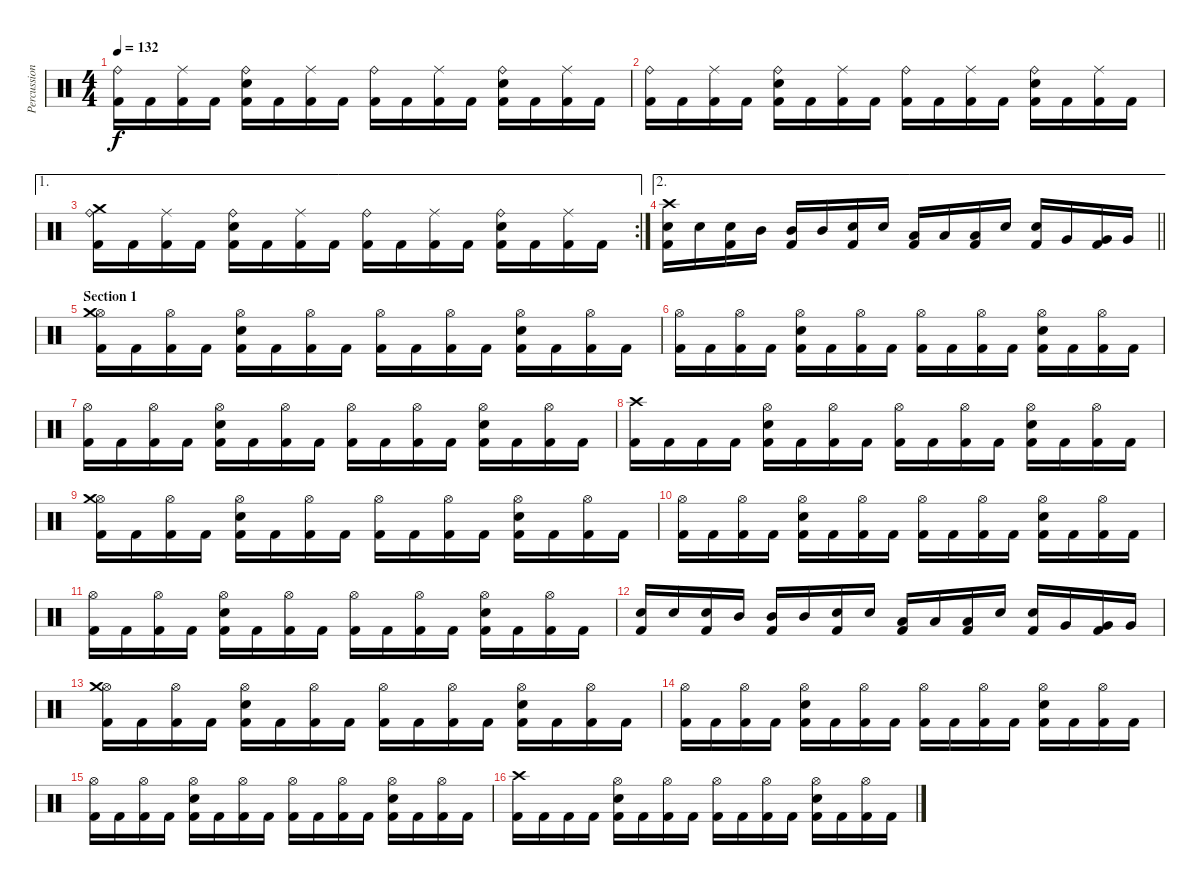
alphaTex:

\track ("Percussion" "Percussion") {instrument percussion}
\staff {score}
\articulation defaults
\ts (4 4)
\tempo 132
\clef neutral
\ks c
("Kick (hit) 2" "Ride (bell)").16{dy f} "Kick (hit) 2".16 ("Kick (hit) 2" "Ride (middle)").16 "Kick (hit) 2".16 ("Kick (hit) 2" "Electric Snare (hit)" "Ride (bell)").16 "Kick (hit) 2".16 ("Kick (hit) 2" "Ride (middle)").16 "Kick (hit) 2".16 ("Kick (hit) 2" "Ride (bell)").16 "Kick (hit) 2".16 ("Kick (hit) 2" "Ride (middle)").16 "Kick (hit) 2".16 ("Kick (hit) 2" "Electric Snare (hit)" "Ride (bell)").16 "Kick (hit) 2".16 ("Kick (hit) 2" "Ride (middle)").16 "Kick (hit) 2".16 |
("Kick (hit) 2" "Ride (bell)").16 "Kick (hit) 2".16 ("Kick (hit) 2" "Ride (middle)").16 "Kick (hit) 2".16 ("Kick (hit) 2" "Electric Snare (hit)" "Ride (bell)").16 "Kick (hit) 2".16 ("Kick (hit) 2" "Ride (middle)").16 "Kick (hit) 2".16 ("Kick (hit) 2" "Ride (bell)").16 "Kick (hit) 2".16 ("Kick (hit) 2" "Ride (middle)").16 "Kick (hit) 2".16 ("Kick (hit) 2" "Electric Snare (hit)" "Ride (bell)").16 "Kick (hit) 2".16 ("Kick (hit) 2" "Ride (middle)").16 "Kick (hit) 2".16 |
\ae 1
\rc 2
("Kick (hit) 2" "Ride (bell)" "Crash medium (hit)").16 "Kick (hit) 2".16 ("Kick (hit) 2" "Ride (middle)").16 "Kick (hit) 2".16 ("Kick (hit) 2" "Electric Snare (hit)" "Ride (bell)").16 "Kick (hit) 2".16 ("Kick (hit) 2" "Ride (middle)").16 "Kick (hit) 2".16 ("Kick (hit) 2" "Ride (bell)").16 "Kick (hit) 2".16 ("Kick (hit) 2" "Ride (middle)").16 "Kick (hit) 2".16 ("Kick (hit) 2" "Electric Snare (hit)" "Ride (bell)").16 "Kick (hit) 2".16 ("Kick (hit) 2" "Ride (middle)").16 "Kick (hit) 2".16 |
\ae 2
\barLineRight lightlight
("Crash high (hit)" "Electric Snare (hit)" "Kick (hit) 2").16 "Electric Snare (hit)".16 ("Electric Snare (hit)" "Kick (hit) 2").16 "Mid Tom (hit)".16 ("Mid Tom (hit)" "Kick (hit) 2").16 "Mid Tom (hit)".16 ("Electric Snare (hit)" "Kick (hit) 2").16 "Electric Snare (hit)".16 ("Low Tom (hit)" "Kick (hit) 2").16 "Low Tom (hit)".16 ("Low Tom (hit)" "Kick (hit) 2").16 "Electric Snare (hit)".16 ("Electric Snare (hit)" "Kick (hit) 2").16 "Very Low Tom (hit)".16 ("Very Low Tom (hit)" "Kick (hit) 2").16 "Very Low Tom (hit)".16 |
\section ("" "Section 1")
("Kick (hit) 2" "Hi-Hat (open)" "Crash medium (hit)").16 "Kick (hit) 2".16 ("Kick (hit) 2" "Hi-Hat (open)").16 "Kick (hit) 2".16 ("Kick (hit) 2" "Electric Snare (hit)" "Hi-Hat (open)").16 "Kick (hit) 2".16 ("Kick (hit) 2" "Hi-Hat (open)").16 "Kick (hit) 2".16 ("Kick (hit) 2" "Hi-Hat (open)").16 "Kick (hit) 2".16 ("Kick (hit) 2" "Hi-Hat (open)").16 "Kick (hit) 2".16 ("Kick (hit) 2" "Electric Snare (hit)" "Hi-Hat (open)").16 "Kick (hit) 2".16 ("Kick (hit) 2" "Hi-Hat (open)").16 "Kick (hit) 2".16 |
("Kick (hit) 2" "Hi-Hat (open)").16 "Kick (hit) 2".16 ("Kick (hit) 2" "Hi-Hat (open)").16 "Kick (hit) 2".16 ("Kick (hit) 2" "Electric Snare (hit)" "Hi-Hat (open)").16 "Kick (hit) 2".16 ("Kick (hit) 2" "Hi-Hat (open)").16 "Kick (hit) 2".16 ("Kick (hit) 2" "Hi-Hat (open)").16 "Kick (hit) 2".16 ("Kick (hit) 2" "Hi-Hat (open)").16 "Kick (hit) 2".16 ("Kick (hit) 2" "Electric Snare (hit)" "Hi-Hat (open)").16 "Kick (hit) 2".16 ("Kick (hit) 2" "Hi-Hat (open)").16 "Kick (hit) 2".16 |
("Kick (hit) 2" "Hi-Hat (open)").16 "Kick (hit) 2".16 ("Kick (hit) 2" "Hi-Hat (open)").16 "Kick (hit) 2".16 ("Kick (hit) 2" "Electric Snare (hit)" "Hi-Hat (open)").16 "Kick (hit) 2".16 ("Kick (hit) 2" "Hi-Hat (open)").16 "Kick (hit) 2".16 ("Kick (hit) 2" "Hi-Hat (open)").16 "Kick (hit) 2".16 ("Kick (hit) 2" "Hi-Hat (open)").16 "Kick (hit) 2".16 ("Kick (hit) 2" "Electric Snare (hit)" "Hi-Hat (open)").16 "Kick (hit) 2".16 ("Kick (hit) 2" "Hi-Hat (open)").16 "Kick (hit) 2".16 |
("Kick (hit) 2" "Crash high (hit)").16 "Kick (hit) 2".16 "Kick (hit) 2".16 "Kick (hit) 2".16 ("Kick (hit) 2" "Electric Snare (hit)" "Hi-Hat (open)").16 "Kick (hit) 2".16 ("Kick (hit) 2" "Hi-Hat (open)").16 "Kick (hit) 2".16 ("Kick (hit) 2" "Hi-Hat (open)").16 "Kick (hit) 2".16 ("Kick (hit) 2" "Hi-Hat (open)").16 "Kick (hit) 2".16 ("Kick (hit) 2" "Electric Snare (hit)" "Hi-Hat (open)").16 "Kick (hit) 2".16 ("Kick (hit) 2" "Hi-Hat (open)").16 "Kick (hit) 2".16 |
("Kick (hit) 2" "Hi-Hat (open)" "Crash medium (hit)").16 "Kick (hit) 2".16 ("Kick (hit) 2" "Hi-Hat (open)").16 "Kick (hit) 2".16 ("Kick (hit) 2" "Electric Snare (hit)" "Hi-Hat (open)").16 "Kick (hit) 2".16 ("Kick (hit) 2" "Hi-Hat (open)").16 "Kick (hit) 2".16 ("Kick (hit) 2" "Hi-Hat (open)").16 "Kick (hit) 2".16 ("Kick (hit) 2" "Hi-Hat (open)").16 "Kick (hit) 2".16 ("Kick (hit) 2" "Electric Snare (hit)" "Hi-Hat (open)").16 "Kick (hit) 2".16 ("Kick (hit) 2" "Hi-Hat (open)").16 "Kick (hit) 2".16 |
("Kick (hit) 2" "Hi-Hat (open)").16 "Kick (hit) 2".16 ("Kick (hit) 2" "Hi-Hat (open)").16 "Kick (hit) 2".16 ("Kick (hit) 2" "Electric Snare (hit)" "Hi-Hat (open)").16 "Kick (hit) 2".16 ("Kick (hit) 2" "Hi-Hat (open)").16 "Kick (hit) 2".16 ("Kick (hit) 2" "Hi-Hat (open)").16 "Kick (hit) 2".16 ("Kick (hit) 2" "Hi-Hat (open)").16 "Kick (hit) 2".16 ("Kick (hit) 2" "Electric Snare (hit)" "Hi-Hat (open)").16 "Kick (hit) 2".16 ("Kick (hit) 2" "Hi-Hat (open)").16 "Kick (hit) 2".16 |
("Kick (hit) 2" "Hi-Hat (open)").16 "Kick (hit) 2".16 ("Kick (hit) 2" "Hi-Hat (open)").16 "Kick (hit) 2".16 ("Kick (hit) 2" "Electric Snare (hit)" "Hi-Hat (open)").16 "Kick (hit) 2".16 ("Kick (hit) 2" "Hi-Hat (open)").16 "Kick (hit) 2".16 ("Kick (hit) 2" "Hi-Hat (open)").16 "Kick (hit) 2".16 ("Kick (hit) 2" "Hi-Hat (open)").16 "Kick (hit) 2".16 ("Kick (hit) 2" "Electric Snare (hit)" "Hi-Hat (open)").16 "Kick (hit) 2".16 ("Kick (hit) 2" "Hi-Hat (open)").16 "Kick (hit) 2".16 |
("Electric Snare (hit)" "Kick (hit) 2").16 "Electric Snare (hit)".16 ("Electric Snare (hit)" "Kick (hit) 2").16 "Mid Tom (hit)".16 ("Mid Tom (hit)" "Kick (hit) 2").16 "Mid Tom (hit)".16 ("Electric Snare (hit)" "Kick (hit) 2").16 "Electric Snare (hit)".16 ("Low Tom (hit)" "Kick (hit) 2").16 "Low Tom (hit)".16 ("Low Tom (hit)" "Kick (hit) 2").16 "Electric Snare (hit)".16 ("Electric Snare (hit)" "Kick (hit) 2").16 "Very Low Tom (hit)".16 ("Very Low Tom (hit)" "Kick (hit) 2").16 "Very Low Tom (hit)".16 |
("Kick (hit) 2" "Hi-Hat (open)" "Crash medium (hit)").16 "Kick (hit) 2".16 ("Kick (hit) 2" "Hi-Hat (open)").16 "Kick (hit) 2".16 ("Kick (hit) 2" "Electric Snare (hit)" "Hi-Hat (open)").16 "Kick (hit) 2".16 ("Kick (hit) 2" "Hi-Hat (open)").16 "Kick (hit) 2".16 ("Kick (hit) 2" "Hi-Hat (open)").16 "Kick (hit) 2".16 ("Kick (hit) 2" "Hi-Hat (open)").16 "Kick (hit) 2".16 ("Kick (hit) 2" "Electric Snare (hit)" "Hi-Hat (open)").16 "Kick (hit) 2".16 ("Kick (hit) 2" "Hi-Hat (open)").16 "Kick (hit) 2".16 |
("Kick (hit) 2" "Hi-Hat (open)").16 "Kick (hit) 2".16 ("Kick (hit) 2" "Hi-Hat (open)").16 "Kick (hit) 2".16 ("Kick (hit) 2" "Electric Snare (hit)" "Hi-Hat (open)").16 "Kick (hit) 2".16 ("Kick (hit) 2" "Hi-Hat (open)").16 "Kick (hit) 2".16 ("Kick (hit) 2" "Hi-Hat (open)").16 "Kick (hit) 2".16 ("Kick (hit) 2" "Hi-Hat (open)").16 "Kick (hit) 2".16 ("Kick (hit) 2" "Electric Snare (hit)" "Hi-Hat (open)").16 "Kick (hit) 2".16 ("Kick (hit) 2" "Hi-Hat (open)").16 "Kick (hit) 2".16 |
("Kick (hit) 2" "Hi-Hat (open)").16 "Kick (hit) 2".16 ("Kick (hit) 2" "Hi-Hat (open)").16 "Kick (hit) 2".16 ("Kick (hit) 2" "Electric Snare (hit)" "Hi-Hat (open)").16 "Kick (hit) 2".16 ("Kick (hit) 2" "Hi-Hat (open)").16 "Kick (hit) 2".16 ("Kick (hit) 2" "Hi-Hat (open)").16 "Kick (hit) 2".16 ("Kick (hit) 2" "Hi-Hat (open)").16 "Kick (hit) 2".16 ("Kick (hit) 2" "Electric Snare (hit)" "Hi-Hat (open)").16 "Kick (hit) 2".16 ("Kick (hit) 2" "Hi-Hat (open)").16 "Kick (hit) 2".16 |
("Kick (hit) 2" "Crash high (hit)").16 "Kick (hit) 2".16 "Kick (hit) 2".16 "Kick (hit) 2".16 ("Kick (hit) 2" "Electric Snare (hit)" "Hi-Hat (open)").16 "Kick (hit) 2".16 ("Kick (hit) 2" "Hi-Hat (open)").16 "Kick (hit) 2".16 ("Kick (hit) 2" "Hi-Hat (open)").16 "Kick (hit) 2".16 ("Kick (hit) 2" "Hi-Hat (open)").16 "Kick (hit) 2".16 ("Kick (hit) 2" "Electric Snare (hit)" "Hi-Hat (open)").16 "Kick (hit) 2".16 ("Kick (hit) 2" "Hi-Hat (open)").16 "Kick (hit) 2".16
